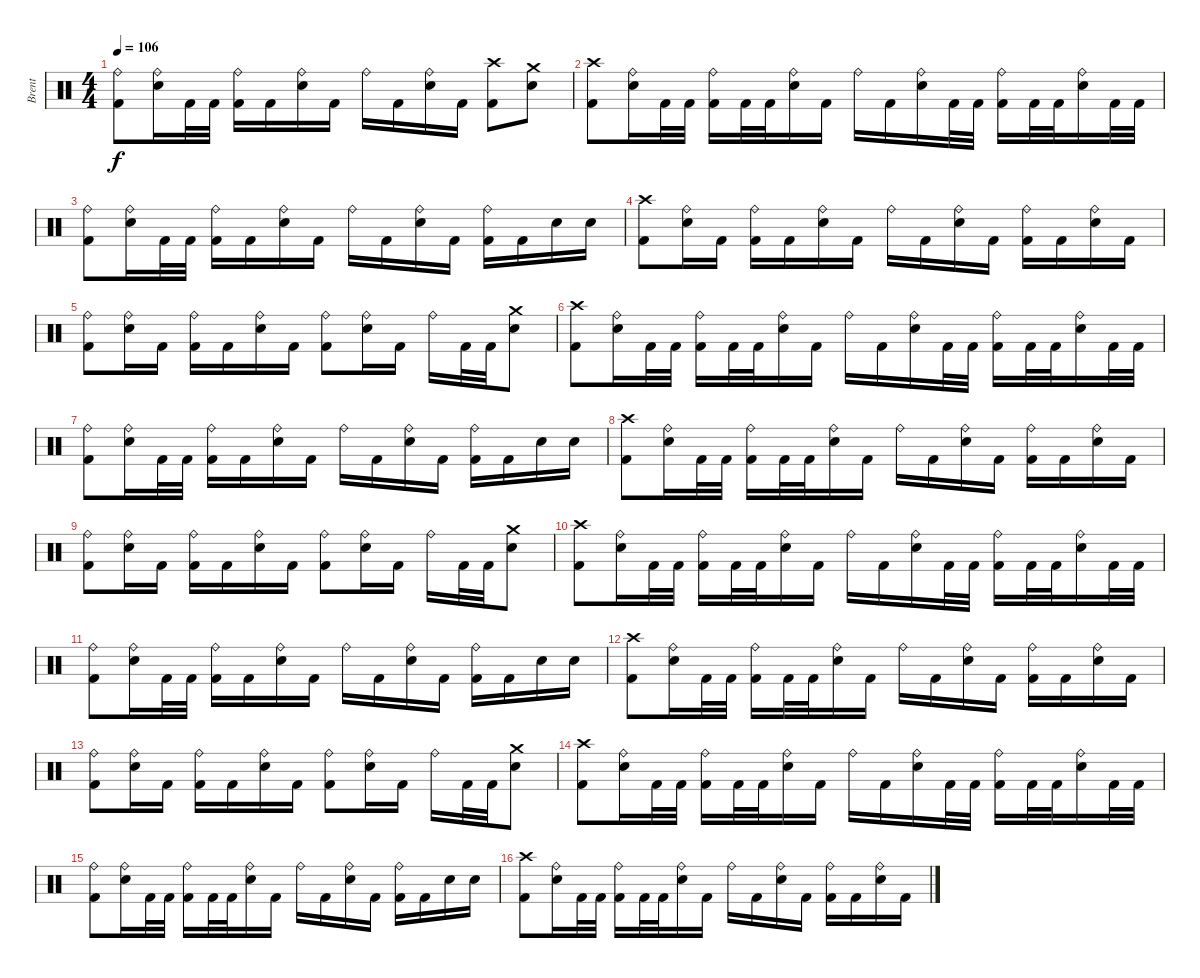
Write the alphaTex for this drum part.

\track ("Brent" "Brent") {instrument percussion}
\staff {score}
\articulation defaults
\ts (4 4)
\tempo 106
\clef neutral
\ks c
("Ride (bell)" "Kick (hit) 2").8{dy f} ("Ride (bell)" "Snare (hit) 2").16 "Kick (hit) 2".32 "Kick (hit) 2".32 ("Ride (bell)" "Kick (hit) 2").16 "Kick (hit) 2".16 ("Ride (bell)" "Snare (hit) 2").16 "Kick (hit) 2".16 "Ride (bell)".16 "Kick (hit) 2".16 ("Ride (bell)" "Snare (hit) 2").16 "Kick (hit) 2".16 ("Crash high (hit)" "Kick (hit) 2").8 ("Crash medium (hit)" "Snare (hit) 2").8 |
("Crash high (hit)" "Kick (hit) 2").8 ("Ride (bell)" "Snare (hit) 2").16 "Kick (hit) 2".32 "Kick (hit) 2".32 ("Ride (bell)" "Kick (hit) 2").16 "Kick (hit) 2".32 "Kick (hit) 2".32 ("Ride (bell)" "Snare (hit) 2").16 "Kick (hit) 2".16 "Ride (bell)".16 "Kick (hit) 2".16 ("Ride (bell)" "Snare (hit) 2").16 "Kick (hit) 2".32 "Kick (hit) 2".32 ("Ride (bell)" "Kick (hit) 2").16 "Kick (hit) 2".32 "Kick (hit) 2".32 ("Ride (bell)" "Snare (hit) 2").16 "Kick (hit) 2".32 "Kick (hit) 2".32 |
("Ride (bell)" "Kick (hit) 2").8 ("Ride (bell)" "Snare (hit) 2").16 "Kick (hit) 2".32 "Kick (hit) 2".32 ("Ride (bell)" "Kick (hit) 2").16 "Kick (hit) 2".16 ("Ride (bell)" "Snare (hit) 2").16 "Kick (hit) 2".16 "Ride (bell)".16 "Kick (hit) 2".16 ("Ride (bell)" "Snare (hit) 2").16 "Kick (hit) 2".16 ("Ride (bell)" "Kick (hit) 2").16 "Kick (hit) 2".16 "Snare (hit) 2".16 "Snare (hit) 2".16 |
("Crash high (hit)" "Kick (hit) 2").8 ("Ride (bell)" "Snare (hit) 2").16 "Kick (hit) 2".16 ("Ride (bell)" "Kick (hit) 2").16 "Kick (hit) 2".16 ("Ride (bell)" "Snare (hit) 2").16 "Kick (hit) 2".16 "Ride (bell)".16 "Kick (hit) 2".16 ("Ride (bell)" "Snare (hit) 2").16 "Kick (hit) 2".16 ("Ride (bell)" "Kick (hit) 2").16 "Kick (hit) 2".16 ("Ride (bell)" "Snare (hit) 2").16 "Kick (hit) 2".16 |
("Ride (bell)" "Kick (hit) 2").8 ("Ride (bell)" "Snare (hit) 2").16 "Kick (hit) 2".16 ("Ride (bell)" "Kick (hit) 2").16 "Kick (hit) 2".16 ("Ride (bell)" "Snare (hit) 2").16 "Kick (hit) 2".16 ("Ride (bell)" "Kick (hit) 2").8 ("Ride (bell)" "Snare (hit) 2").16 "Kick (hit) 2".16 "Ride (bell)".16 "Kick (hit) 2".32 "Kick (hit) 2".32 ("Crash medium (hit)" "Snare (hit) 2").8 |
("Crash high (hit)" "Kick (hit) 2").8 ("Ride (bell)" "Snare (hit) 2").16 "Kick (hit) 2".32 "Kick (hit) 2".32 ("Ride (bell)" "Kick (hit) 2").16 "Kick (hit) 2".32 "Kick (hit) 2".32 ("Ride (bell)" "Snare (hit) 2").16 "Kick (hit) 2".16 "Ride (bell)".16 "Kick (hit) 2".16 ("Ride (bell)" "Snare (hit) 2").16 "Kick (hit) 2".32 "Kick (hit) 2".32 ("Ride (bell)" "Kick (hit) 2").16 "Kick (hit) 2".32 "Kick (hit) 2".32 ("Ride (bell)" "Snare (hit) 2").16 "Kick (hit) 2".32 "Kick (hit) 2".32 |
("Ride (bell)" "Kick (hit) 2").8 ("Ride (bell)" "Snare (hit) 2").16 "Kick (hit) 2".32 "Kick (hit) 2".32 ("Ride (bell)" "Kick (hit) 2").16 "Kick (hit) 2".16 ("Ride (bell)" "Snare (hit) 2").16 "Kick (hit) 2".16 "Ride (bell)".16 "Kick (hit) 2".16 ("Ride (bell)" "Snare (hit) 2").16 "Kick (hit) 2".16 ("Ride (bell)" "Kick (hit) 2").16 "Kick (hit) 2".16 "Snare (hit) 2".16 "Snare (hit) 2".16 |
("Crash high (hit)" "Kick (hit) 2").8 ("Ride (bell)" "Snare (hit) 2").16 "Kick (hit) 2".32 "Kick (hit) 2".32 ("Ride (bell)" "Kick (hit) 2").16 "Kick (hit) 2".32 "Kick (hit) 2".32 ("Ride (bell)" "Snare (hit) 2").16 "Kick (hit) 2".16 "Ride (bell)".16 "Kick (hit) 2".16 ("Ride (bell)" "Snare (hit) 2").16 "Kick (hit) 2".16 ("Ride (bell)" "Kick (hit) 2").16 "Kick (hit) 2".16 ("Ride (bell)" "Snare (hit) 2").16 "Kick (hit) 2".16 |
("Ride (bell)" "Kick (hit) 2").8 ("Ride (bell)" "Snare (hit) 2").16 "Kick (hit) 2".16 ("Ride (bell)" "Kick (hit) 2").16 "Kick (hit) 2".16 ("Ride (bell)" "Snare (hit) 2").16 "Kick (hit) 2".16 ("Ride (bell)" "Kick (hit) 2").8 ("Ride (bell)" "Snare (hit) 2").16 "Kick (hit) 2".16 "Ride (bell)".16 "Kick (hit) 2".32 "Kick (hit) 2".32 ("Crash medium (hit)" "Snare (hit) 2").8 |
("Crash high (hit)" "Kick (hit) 2").8 ("Ride (bell)" "Snare (hit) 2").16 "Kick (hit) 2".32 "Kick (hit) 2".32 ("Ride (bell)" "Kick (hit) 2").16 "Kick (hit) 2".32 "Kick (hit) 2".32 ("Ride (bell)" "Snare (hit) 2").16 "Kick (hit) 2".16 "Ride (bell)".16 "Kick (hit) 2".16 ("Ride (bell)" "Snare (hit) 2").16 "Kick (hit) 2".32 "Kick (hit) 2".32 ("Ride (bell)" "Kick (hit) 2").16 "Kick (hit) 2".32 "Kick (hit) 2".32 ("Ride (bell)" "Snare (hit) 2").16 "Kick (hit) 2".32 "Kick (hit) 2".32 |
("Ride (bell)" "Kick (hit) 2").8 ("Ride (bell)" "Snare (hit) 2").16 "Kick (hit) 2".32 "Kick (hit) 2".32 ("Ride (bell)" "Kick (hit) 2").16 "Kick (hit) 2".16 ("Ride (bell)" "Snare (hit) 2").16 "Kick (hit) 2".16 "Ride (bell)".16 "Kick (hit) 2".16 ("Ride (bell)" "Snare (hit) 2").16 "Kick (hit) 2".16 ("Ride (bell)" "Kick (hit) 2").16 "Kick (hit) 2".16 "Snare (hit) 2".16 "Snare (hit) 2".16 |
("Crash high (hit)" "Kick (hit) 2").8 ("Ride (bell)" "Snare (hit) 2").16 "Kick (hit) 2".32 "Kick (hit) 2".32 ("Ride (bell)" "Kick (hit) 2").16 "Kick (hit) 2".32 "Kick (hit) 2".32 ("Ride (bell)" "Snare (hit) 2").16 "Kick (hit) 2".16 "Ride (bell)".16 "Kick (hit) 2".16 ("Ride (bell)" "Snare (hit) 2").16 "Kick (hit) 2".16 ("Ride (bell)" "Kick (hit) 2").16 "Kick (hit) 2".16 ("Ride (bell)" "Snare (hit) 2").16 "Kick (hit) 2".16 |
("Ride (bell)" "Kick (hit) 2").8 ("Ride (bell)" "Snare (hit) 2").16 "Kick (hit) 2".16 ("Ride (bell)" "Kick (hit) 2").16 "Kick (hit) 2".16 ("Ride (bell)" "Snare (hit) 2").16 "Kick (hit) 2".16 ("Ride (bell)" "Kick (hit) 2").8 ("Ride (bell)" "Snare (hit) 2").16 "Kick (hit) 2".16 "Ride (bell)".16 "Kick (hit) 2".32 "Kick (hit) 2".32 ("Crash medium (hit)" "Snare (hit) 2").8 |
("Crash high (hit)" "Kick (hit) 2").8 ("Ride (bell)" "Snare (hit) 2").16 "Kick (hit) 2".32 "Kick (hit) 2".32 ("Ride (bell)" "Kick (hit) 2").16 "Kick (hit) 2".32 "Kick (hit) 2".32 ("Ride (bell)" "Snare (hit) 2").16 "Kick (hit) 2".16 "Ride (bell)".16 "Kick (hit) 2".16 ("Ride (bell)" "Snare (hit) 2").16 "Kick (hit) 2".32 "Kick (hit) 2".32 ("Ride (bell)" "Kick (hit) 2").16 "Kick (hit) 2".32 "Kick (hit) 2".32 ("Ride (bell)" "Snare (hit) 2").16 "Kick (hit) 2".32 "Kick (hit) 2".32 |
("Ride (bell)" "Kick (hit) 2").8 ("Ride (bell)" "Snare (hit) 2").16 "Kick (hit) 2".32 "Kick (hit) 2".32 ("Ride (bell)" "Kick (hit) 2").16 "Kick (hit) 2".32 "Kick (hit) 2".32 ("Ride (bell)" "Snare (hit) 2").16 "Kick (hit) 2".16 "Ride (bell)".16 "Kick (hit) 2".16 ("Ride (bell)" "Snare (hit) 2").16 "Kick (hit) 2".16 ("Ride (bell)" "Kick (hit) 2").16 "Kick (hit) 2".16 "Snare (hit) 2".16 "Snare (hit) 2".16 |
("Crash high (hit)" "Kick (hit) 2").8 ("Ride (bell)" "Snare (hit) 2").16 "Kick (hit) 2".32 "Kick (hit) 2".32 ("Ride (bell)" "Kick (hit) 2").16 "Kick (hit) 2".32 "Kick (hit) 2".32 ("Ride (bell)" "Snare (hit) 2").16 "Kick (hit) 2".16 "Ride (bell)".16 "Kick (hit) 2".16 ("Ride (bell)" "Snare (hit) 2").16 "Kick (hit) 2".16 ("Ride (bell)" "Kick (hit) 2").16 "Kick (hit) 2".16 ("Ride (bell)" "Snare (hit) 2").16 "Kick (hit) 2".16
